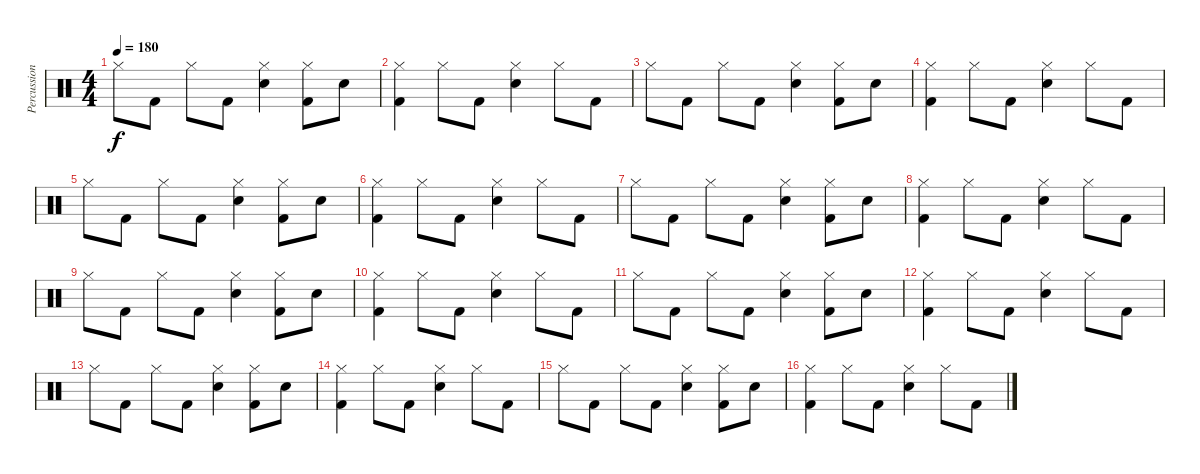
\track ("Percussion" "Percussion") {instrument percussion}
\staff {score}
\articulation defaults
\ts (4 4)
\tempo 180
\clef neutral
\ks c "Hi-Hat (closed)".8{dy f} "Kick (hit) 2".8 "Hi-Hat (closed)".8 "Kick (hit) 2".8
("Hi-Hat (closed)" "Snare (hit) 2").4 ("Hi-Hat (closed)" "Kick (hit) 2").8 "Snare (hit) 2".8 |
("Hi-Hat (closed)" "Kick (hit) 2").4 "Hi-Hat (closed)".8 "Kick (hit) 2".8 ("Hi-Hat (closed)" "Snare (hit) 2").4 "Hi-Hat (closed)".8 "Kick (hit) 2".8 |
"Hi-Hat (closed)".8 "Kick (hit) 2".8 "Hi-Hat (closed)".8 "Kick (hit) 2".8 ("Hi-Hat (closed)" "Snare (hit) 2").4 ("Hi-Hat (closed)" "Kick (hit) 2").8 "Snare (hit) 2".8 |
("Hi-Hat (closed)" "Kick (hit) 2").4 "Hi-Hat (closed)".8 "Kick (hit) 2".8 ("Hi-Hat (closed)" "Snare (hit) 2").4 "Hi-Hat (closed)".8 "Kick (hit) 2".8 |
"Hi-Hat (closed)".8 "Kick (hit) 2".8 "Hi-Hat (closed)".8 "Kick (hit) 2".8 ("Hi-Hat (closed)" "Snare (hit) 2").4 ("Hi-Hat (closed)" "Kick (hit) 2").8 "Snare (hit) 2".8 |
("Hi-Hat (closed)" "Kick (hit) 2").4 "Hi-Hat (closed)".8 "Kick (hit) 2".8 ("Hi-Hat (closed)" "Snare (hit) 2").4 "Hi-Hat (closed)".8 "Kick (hit) 2".8 |
"Hi-Hat (closed)".8 "Kick (hit) 2".8 "Hi-Hat (closed)".8 "Kick (hit) 2".8 ("Hi-Hat (closed)" "Snare (hit) 2").4 ("Hi-Hat (closed)" "Kick (hit) 2").8 "Snare (hit) 2".8 |
("Hi-Hat (closed)" "Kick (hit) 2").4 "Hi-Hat (closed)".8 "Kick (hit) 2".8 ("Hi-Hat (closed)" "Snare (hit) 2").4 "Hi-Hat (closed)".8 "Kick (hit) 2".8 |
"Hi-Hat (closed)".8 "Kick (hit) 2".8 "Hi-Hat (closed)".8 "Kick (hit) 2".8 ("Hi-Hat (closed)" "Snare (hit) 2").4 ("Hi-Hat (closed)" "Kick (hit) 2").8 "Snare (hit) 2".8 |
("Hi-Hat (closed)" "Kick (hit) 2").4 "Hi-Hat (closed)".8 "Kick (hit) 2".8 ("Hi-Hat (closed)" "Snare (hit) 2").4 "Hi-Hat (closed)".8 "Kick (hit) 2".8 |
"Hi-Hat (closed)".8 "Kick (hit) 2".8 "Hi-Hat (closed)".8 "Kick (hit) 2".8 ("Hi-Hat (closed)" "Snare (hit) 2").4 ("Hi-Hat (closed)" "Kick (hit) 2").8 "Snare (hit) 2".8 |
("Hi-Hat (closed)" "Kick (hit) 2").4 "Hi-Hat (closed)".8 "Kick (hit) 2".8 ("Hi-Hat (closed)" "Snare (hit) 2").4 "Hi-Hat (closed)".8 "Kick (hit) 2".8 |
"Hi-Hat (closed)".8 "Kick (hit) 2".8 "Hi-Hat (closed)".8 "Kick (hit) 2".8 ("Hi-Hat (closed)" "Snare (hit) 2").4 ("Hi-Hat (closed)" "Kick (hit) 2").8 "Snare (hit) 2".8 |
("Hi-Hat (closed)" "Kick (hit) 2").4 "Hi-Hat (closed)".8 "Kick (hit) 2".8 ("Hi-Hat (closed)" "Snare (hit) 2").4 "Hi-Hat (closed)".8 "Kick (hit) 2".8 |
"Hi-Hat (closed)".8 "Kick (hit) 2".8 "Hi-Hat (closed)".8 "Kick (hit) 2".8 ("Hi-Hat (closed)" "Snare (hit) 2").4 ("Hi-Hat (closed)" "Kick (hit) 2").8 "Snare (hit) 2".8 |
("Hi-Hat (closed)" "Kick (hit) 2").4 "Hi-Hat (closed)".8 "Kick (hit) 2".8 ("Hi-Hat (closed)" "Snare (hit) 2").4 "Hi-Hat (closed)".8 "Kick (hit) 2".8
